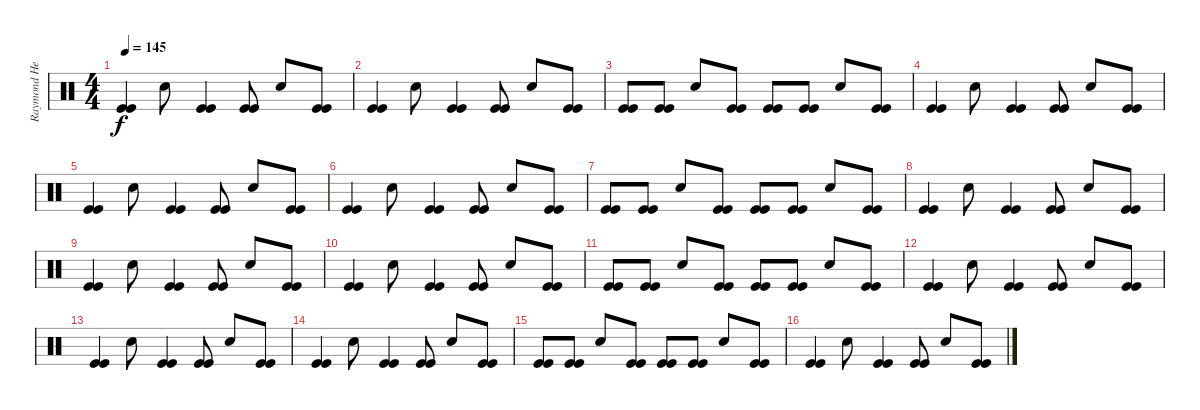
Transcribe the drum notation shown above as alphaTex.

\track ("Raymond Herrera" "Raymond He") {instrument percussion}
\staff {score}
\articulation defaults
\ts (4 4)
\tempo 145
\clef neutral
\ks c
("Kick (hit)" "Kick (hit)").4{dy f} "Electric Snare (hit)".8 ("Kick (hit)" "Kick (hit)").4 ("Kick (hit)" "Kick (hit)").8 "Electric Snare (hit)".8 ("Kick (hit)" "Kick (hit)").8 |
("Kick (hit)" "Kick (hit)").4 "Electric Snare (hit)".8 ("Kick (hit)" "Kick (hit)").4 ("Kick (hit)" "Kick (hit)").8 "Electric Snare (hit)".8 ("Kick (hit)" "Kick (hit)").8 |
("Kick (hit)" "Kick (hit)").8 ("Kick (hit)" "Kick (hit)").8 "Electric Snare (hit)".8 ("Kick (hit)" "Kick (hit)").8 ("Kick (hit)" "Kick (hit)").8 ("Kick (hit)" "Kick (hit)").8 "Electric Snare (hit)".8 ("Kick (hit)" "Kick (hit)").8 |
("Kick (hit)" "Kick (hit)").4 "Electric Snare (hit)".8 ("Kick (hit)" "Kick (hit)").4 ("Kick (hit)" "Kick (hit)").8 "Electric Snare (hit)".8 ("Kick (hit)" "Kick (hit)").8 |
("Kick (hit)" "Kick (hit)").4 "Electric Snare (hit)".8 ("Kick (hit)" "Kick (hit)").4 ("Kick (hit)" "Kick (hit)").8 "Electric Snare (hit)".8 ("Kick (hit)" "Kick (hit)").8 |
("Kick (hit)" "Kick (hit)").4 "Electric Snare (hit)".8 ("Kick (hit)" "Kick (hit)").4 ("Kick (hit)" "Kick (hit)").8 "Electric Snare (hit)".8 ("Kick (hit)" "Kick (hit)").8 |
("Kick (hit)" "Kick (hit)").8 ("Kick (hit)" "Kick (hit)").8 "Electric Snare (hit)".8 ("Kick (hit)" "Kick (hit)").8 ("Kick (hit)" "Kick (hit)").8 ("Kick (hit)" "Kick (hit)").8 "Electric Snare (hit)".8 ("Kick (hit)" "Kick (hit)").8 |
("Kick (hit)" "Kick (hit)").4 "Electric Snare (hit)".8 ("Kick (hit)" "Kick (hit)").4 ("Kick (hit)" "Kick (hit)").8 "Electric Snare (hit)".8 ("Kick (hit)" "Kick (hit)").8 |
("Kick (hit)" "Kick (hit)").4 "Electric Snare (hit)".8 ("Kick (hit)" "Kick (hit)").4 ("Kick (hit)" "Kick (hit)").8 "Electric Snare (hit)".8 ("Kick (hit)" "Kick (hit)").8 |
("Kick (hit)" "Kick (hit)").4 "Electric Snare (hit)".8 ("Kick (hit)" "Kick (hit)").4 ("Kick (hit)" "Kick (hit)").8 "Electric Snare (hit)".8 ("Kick (hit)" "Kick (hit)").8 |
("Kick (hit)" "Kick (hit)").8 ("Kick (hit)" "Kick (hit)").8 "Electric Snare (hit)".8 ("Kick (hit)" "Kick (hit)").8 ("Kick (hit)" "Kick (hit)").8 ("Kick (hit)" "Kick (hit)").8 "Electric Snare (hit)".8 ("Kick (hit)" "Kick (hit)").8 |
("Kick (hit)" "Kick (hit)").4 "Electric Snare (hit)".8 ("Kick (hit)" "Kick (hit)").4 ("Kick (hit)" "Kick (hit)").8 "Electric Snare (hit)".8 ("Kick (hit)" "Kick (hit)").8 |
("Kick (hit)" "Kick (hit)").4 "Electric Snare (hit)".8 ("Kick (hit)" "Kick (hit)").4 ("Kick (hit)" "Kick (hit)").8 "Electric Snare (hit)".8 ("Kick (hit)" "Kick (hit)").8 |
("Kick (hit)" "Kick (hit)").4 "Electric Snare (hit)".8 ("Kick (hit)" "Kick (hit)").4 ("Kick (hit)" "Kick (hit)").8 "Electric Snare (hit)".8 ("Kick (hit)" "Kick (hit)").8 |
("Kick (hit)" "Kick (hit)").8 ("Kick (hit)" "Kick (hit)").8 "Electric Snare (hit)".8 ("Kick (hit)" "Kick (hit)").8 ("Kick (hit)" "Kick (hit)").8 ("Kick (hit)" "Kick (hit)").8 "Electric Snare (hit)".8 ("Kick (hit)" "Kick (hit)").8 |
("Kick (hit)" "Kick (hit)").4 "Electric Snare (hit)".8 ("Kick (hit)" "Kick (hit)").4 ("Kick (hit)" "Kick (hit)").8 "Electric Snare (hit)".8 ("Kick (hit)" "Kick (hit)").8
